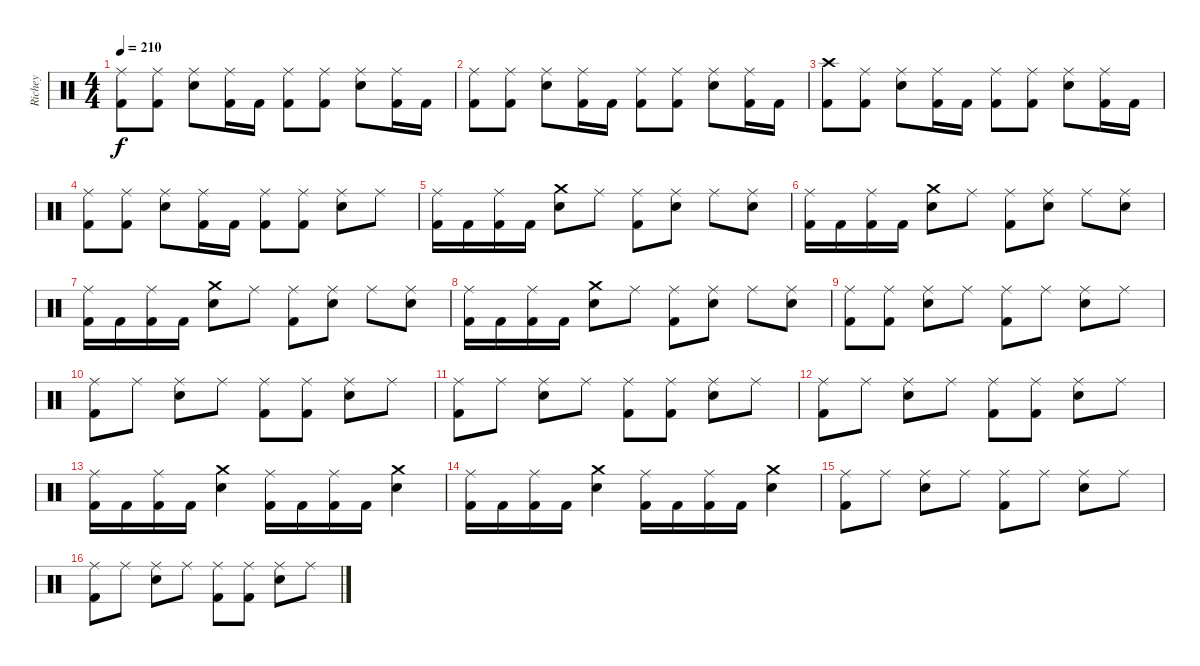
\track ("Richey" "Richey") {instrument percussion}
\staff {score}
\articulation defaults
\ts (4 4)
\tempo 210
\clef neutral
\ks c
("Ride (middle)" "Kick (hit) 2").8{dy f} ("Ride (middle)" "Kick (hit) 2").8 ("Ride (middle)" "Snare (hit) 2").8 ("Ride (middle)" "Kick (hit) 2").16 "Kick (hit) 2".16 ("Ride (middle)" "Kick (hit) 2").8 ("Ride (middle)" "Kick (hit) 2").8 ("Ride (middle)" "Snare (hit) 2").8 ("Ride (middle)" "Kick (hit) 2").16 "Kick (hit) 2".16 |
("Ride (middle)" "Kick (hit) 2").8 ("Ride (middle)" "Kick (hit) 2").8 ("Ride (middle)" "Snare (hit) 2").8 ("Ride (middle)" "Kick (hit) 2").16 "Kick (hit) 2".16 ("Ride (middle)" "Kick (hit) 2").8 ("Ride (middle)" "Kick (hit) 2").8 ("Ride (middle)" "Snare (hit) 2").8 ("Ride (middle)" "Kick (hit) 2").16 "Kick (hit) 2".16 |
("Crash high (hit)" "Kick (hit) 2").8 ("Ride (middle)" "Kick (hit) 2").8 ("Ride (middle)" "Snare (hit) 2").8 ("Ride (middle)" "Kick (hit) 2").16 "Kick (hit) 2".16 ("Ride (middle)" "Kick (hit) 2").8 ("Ride (middle)" "Kick (hit) 2").8 ("Ride (middle)" "Snare (hit) 2").8 ("Ride (middle)" "Kick (hit) 2").16 "Kick (hit) 2".16 |
("Ride (middle)" "Kick (hit) 2").8 ("Ride (middle)" "Kick (hit) 2").8 ("Ride (middle)" "Snare (hit) 2").8 ("Ride (middle)" "Kick (hit) 2").16 "Kick (hit) 2".16 ("Ride (middle)" "Kick (hit) 2").8 ("Ride (middle)" "Kick (hit) 2").8 ("Ride (middle)" "Snare (hit) 2").8 "Ride (middle)".8 |
("Ride (middle)" "Kick (hit) 2").16 "Kick (hit) 2".16 ("Ride (middle)" "Kick (hit) 2").16 "Kick (hit) 2".16 ("Crash medium (hit)" "Snare (hit) 2").8 "Ride (middle)".8 ("Ride (middle)" "Kick (hit) 2").8 ("Ride (middle)" "Snare (hit) 2").8 "Ride (middle)".8 ("Ride (middle)" "Snare (hit) 2").8 |
("Ride (middle)" "Kick (hit) 2").16 "Kick (hit) 2".16 ("Ride (middle)" "Kick (hit) 2").16 "Kick (hit) 2".16 ("Crash medium (hit)" "Snare (hit) 2").8 "Ride (middle)".8 ("Ride (middle)" "Kick (hit) 2").8 ("Ride (middle)" "Snare (hit) 2").8 "Ride (middle)".8 ("Ride (middle)" "Snare (hit) 2").8 |
("Ride (middle)" "Kick (hit) 2").16 "Kick (hit) 2".16 ("Ride (middle)" "Kick (hit) 2").16 "Kick (hit) 2".16 ("Crash medium (hit)" "Snare (hit) 2").8 "Ride (middle)".8 ("Ride (middle)" "Kick (hit) 2").8 ("Ride (middle)" "Snare (hit) 2").8 "Ride (middle)".8 ("Ride (middle)" "Snare (hit) 2").8 |
("Ride (middle)" "Kick (hit) 2").16 "Kick (hit) 2".16 ("Ride (middle)" "Kick (hit) 2").16 "Kick (hit) 2".16 ("Crash medium (hit)" "Snare (hit) 2").8 "Ride (middle)".8 ("Ride (middle)" "Kick (hit) 2").8 ("Ride (middle)" "Snare (hit) 2").8 "Ride (middle)".8 ("Ride (middle)" "Snare (hit) 2").8 |
("Ride (middle)" "Kick (hit) 2").8 ("Ride (middle)" "Kick (hit) 2").8 ("Ride (middle)" "Snare (hit) 2").8 "Ride (middle)".8 ("Ride (middle)" "Kick (hit) 2").8 "Ride (middle)".8 ("Ride (middle)" "Snare (hit) 2").8 "Ride (middle)".8 |
("Ride (middle)" "Kick (hit) 2").8 "Ride (middle)".8 ("Ride (middle)" "Snare (hit) 2").8 "Ride (middle)".8 ("Ride (middle)" "Kick (hit) 2").8 ("Ride (middle)" "Kick (hit) 2").8 ("Ride (middle)" "Snare (hit) 2").8 "Ride (middle)".8 |
("Ride (middle)" "Kick (hit) 2").8 "Ride (middle)".8 ("Ride (middle)" "Snare (hit) 2").8 "Ride (middle)".8 ("Ride (middle)" "Kick (hit) 2").8 ("Ride (middle)" "Kick (hit) 2").8 ("Ride (middle)" "Snare (hit) 2").8 "Ride (middle)".8 |
("Ride (middle)" "Kick (hit) 2").8 "Ride (middle)".8 ("Ride (middle)" "Snare (hit) 2").8 "Ride (middle)".8 ("Ride (middle)" "Kick (hit) 2").8 ("Ride (middle)" "Kick (hit) 2").8 ("Ride (middle)" "Snare (hit) 2").8 "Ride (middle)".8 |
("Ride (middle)" "Kick (hit) 2").16 "Kick (hit) 2".16 ("Ride (middle)" "Kick (hit) 2").16 "Kick (hit) 2".16 ("Crash medium (hit)" "Snare (hit) 2").4 ("Ride (middle)" "Kick (hit) 2").16 "Kick (hit) 2".16 ("Ride (middle)" "Kick (hit) 2").16 "Kick (hit) 2".16 ("Crash medium (hit)" "Snare (hit) 2").4 |
("Ride (middle)" "Kick (hit) 2").16 "Kick (hit) 2".16 ("Ride (middle)" "Kick (hit) 2").16 "Kick (hit) 2".16 ("Crash medium (hit)" "Snare (hit) 2").4 ("Ride (middle)" "Kick (hit) 2").16 "Kick (hit) 2".16 ("Ride (middle)" "Kick (hit) 2").16 "Kick (hit) 2".16 ("Crash medium (hit)" "Snare (hit) 2").4 |
("Ride (middle)" "Kick (hit) 2").8 "Ride (middle)".8 ("Ride (middle)" "Snare (hit) 2").8 "Ride (middle)".8 ("Ride (middle)" "Kick (hit) 2").8 "Ride (middle)".8 ("Ride (middle)" "Snare (hit) 2").8 "Ride (middle)".8 |
("Ride (middle)" "Kick (hit) 2").8 "Ride (middle)".8 ("Ride (middle)" "Snare (hit) 2").8 "Ride (middle)".8 ("Ride (middle)" "Kick (hit) 2").8 ("Ride (middle)" "Kick (hit) 2").8 ("Ride (middle)" "Snare (hit) 2").8 "Ride (middle)".8
